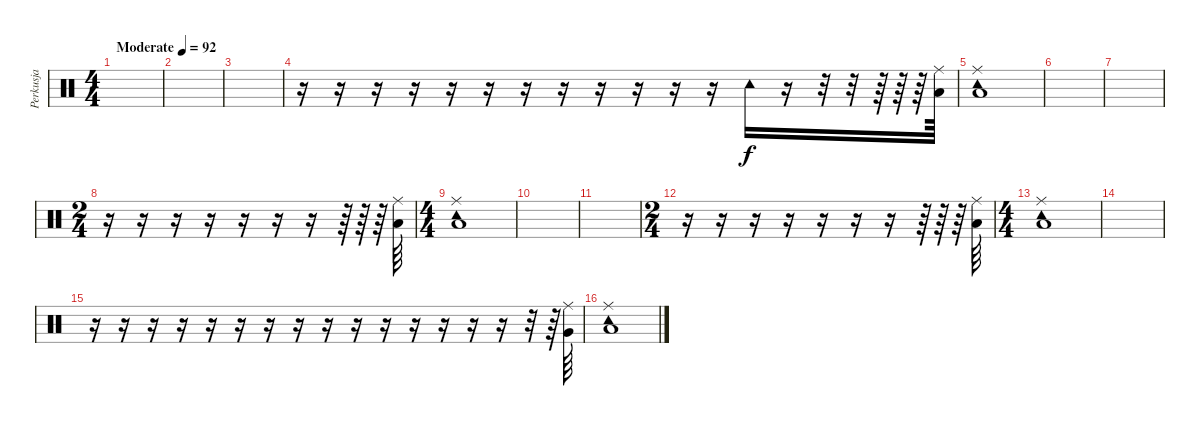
\track ("Perkusja" "Perkusja") {instrument percussion}
\staff {score}
\articulation defaults
\ts (4 4)
\tempo (92 "Moderate")
\clef neutral
\ks c
|
|
|
r.16 r.16 r.16 r.16 r.16 r.16 r.16 r.16 r.16 r.16 r.16 r.16 "Tambourine (hit)".16 r.16 r.32 r.32 r.64 r.64 r.64 ("Ride (middle)" "Low Floor Tom (hit)").64 |
("Tambourine (hit)" "Ride (middle)" "Low Floor Tom (hit)").1 |
|
|
\ts (2 4)
r.16 r.16 r.16 r.16 r.16 r.16 r.16 r.64 r.64 r.64 ("Ride (middle)" "Low Floor Tom (hit)").64 |
\ts (4 4)
("Tambourine (hit)" "Ride (middle)" "Low Floor Tom (hit)").1 |
|
|
\ts (2 4)
r.16 r.16 r.16 r.16 r.16 r.16 r.16 r.64 r.64 r.64 ("Ride (middle)" "Low Floor Tom (hit)").64 |
\ts (4 4)
("Tambourine (hit)" "Ride (middle)" "Low Floor Tom (hit)").1 |
|
r.16 r.16 r.16 r.16 r.16 r.16 r.16 r.16 r.16 r.16 r.16 r.16 r.16 r.16 r.16 r.32 r.64 ("Ride (middle)" "Very Low Tom (hit)").64 |
("Tambourine (hit)" "Ride (middle)" "Low Floor Tom (hit)").1
